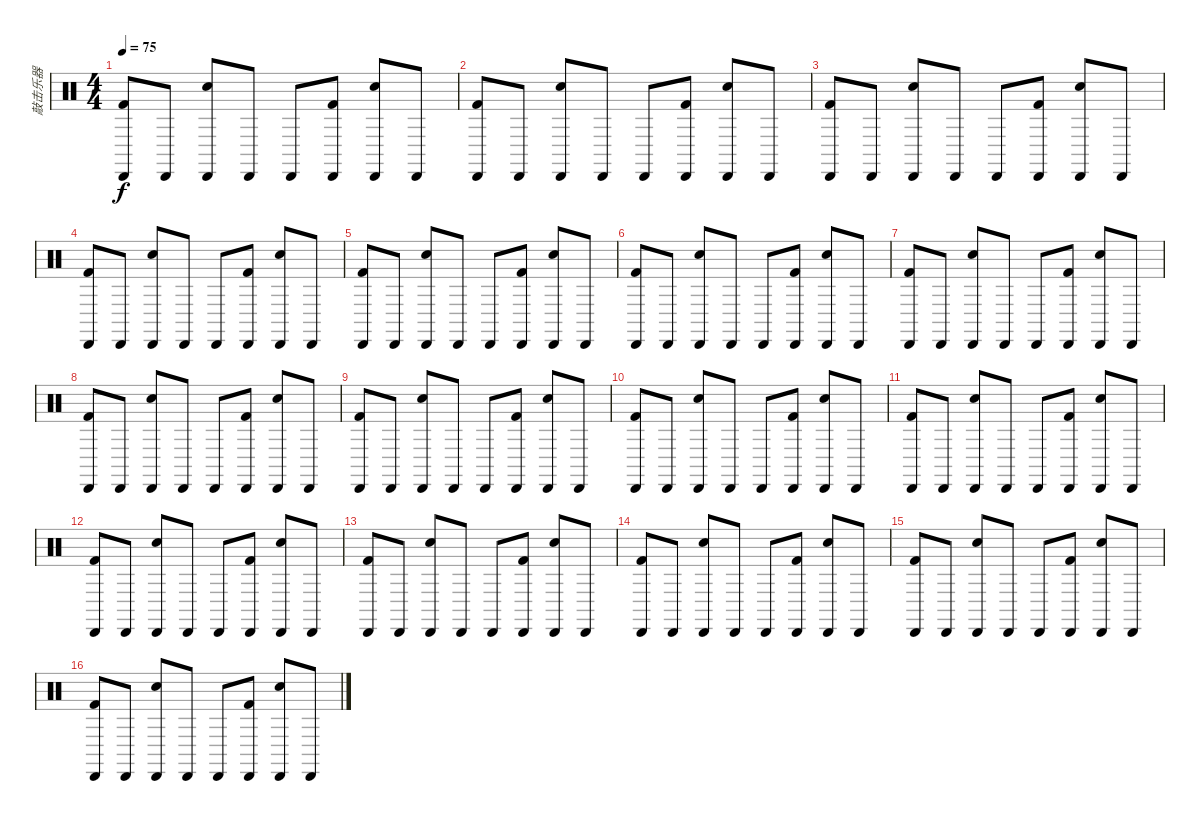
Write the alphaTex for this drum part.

\track ("敲击乐器" "敲击乐器") {instrument percussion}
\staff {score}
\articulation defaults
\ts (4 4)
\tempo 75
\clef neutral
\ks c
("Cabasa (hit)" "Kick (hit) 2").8{dy f} "Cabasa (hit)".8 ("Cabasa (hit)" "Electric Snare (hit)").8 "Cabasa (hit)".8 "Cabasa (hit)".8 ("Cabasa (hit)" "Kick (hit) 2").8 ("Cabasa (hit)" "Electric Snare (hit)").8 "Cabasa (hit)".8 |
("Cabasa (hit)" "Kick (hit) 2").8 "Cabasa (hit)".8 ("Cabasa (hit)" "Electric Snare (hit)").8 "Cabasa (hit)".8 "Cabasa (hit)".8 ("Cabasa (hit)" "Kick (hit) 2").8 ("Cabasa (hit)" "Electric Snare (hit)").8 "Cabasa (hit)".8 |
("Cabasa (hit)" "Kick (hit) 2").8 "Cabasa (hit)".8 ("Cabasa (hit)" "Electric Snare (hit)").8 "Cabasa (hit)".8 "Cabasa (hit)".8 ("Cabasa (hit)" "Kick (hit) 2").8 ("Cabasa (hit)" "Electric Snare (hit)").8 "Cabasa (hit)".8 |
("Cabasa (hit)" "Kick (hit) 2").8 "Cabasa (hit)".8 ("Cabasa (hit)" "Electric Snare (hit)").8 "Cabasa (hit)".8 "Cabasa (hit)".8 ("Cabasa (hit)" "Kick (hit) 2").8 ("Cabasa (hit)" "Electric Snare (hit)").8 "Cabasa (hit)".8 |
("Cabasa (hit)" "Kick (hit) 2").8 "Cabasa (hit)".8 ("Cabasa (hit)" "Electric Snare (hit)").8 "Cabasa (hit)".8 "Cabasa (hit)".8 ("Cabasa (hit)" "Kick (hit) 2").8 ("Cabasa (hit)" "Electric Snare (hit)").8 "Cabasa (hit)".8 |
("Cabasa (hit)" "Kick (hit) 2").8 "Cabasa (hit)".8 ("Cabasa (hit)" "Electric Snare (hit)").8 "Cabasa (hit)".8 "Cabasa (hit)".8 ("Cabasa (hit)" "Kick (hit) 2").8 ("Cabasa (hit)" "Electric Snare (hit)").8 "Cabasa (hit)".8 |
("Cabasa (hit)" "Kick (hit) 2").8 "Cabasa (hit)".8 ("Cabasa (hit)" "Electric Snare (hit)").8 "Cabasa (hit)".8 "Cabasa (hit)".8 ("Cabasa (hit)" "Kick (hit) 2").8 ("Cabasa (hit)" "Electric Snare (hit)").8 "Cabasa (hit)".8 |
("Cabasa (hit)" "Kick (hit) 2").8 "Cabasa (hit)".8 ("Cabasa (hit)" "Electric Snare (hit)").8 "Cabasa (hit)".8 "Cabasa (hit)".8 ("Cabasa (hit)" "Kick (hit) 2").8 ("Cabasa (hit)" "Electric Snare (hit)").8 "Cabasa (hit)".8 |
("Cabasa (hit)" "Kick (hit) 2").8 "Cabasa (hit)".8 ("Cabasa (hit)" "Electric Snare (hit)").8 "Cabasa (hit)".8 "Cabasa (hit)".8 ("Cabasa (hit)" "Kick (hit) 2").8 ("Cabasa (hit)" "Electric Snare (hit)").8 "Cabasa (hit)".8 |
("Cabasa (hit)" "Kick (hit) 2").8 "Cabasa (hit)".8 ("Cabasa (hit)" "Electric Snare (hit)").8 "Cabasa (hit)".8 "Cabasa (hit)".8 ("Cabasa (hit)" "Kick (hit) 2").8 ("Cabasa (hit)" "Electric Snare (hit)").8 "Cabasa (hit)".8 |
("Cabasa (hit)" "Kick (hit) 2").8 "Cabasa (hit)".8 ("Cabasa (hit)" "Electric Snare (hit)").8 "Cabasa (hit)".8 "Cabasa (hit)".8 ("Cabasa (hit)" "Kick (hit) 2").8 ("Cabasa (hit)" "Electric Snare (hit)").8 "Cabasa (hit)".8 |
("Cabasa (hit)" "Kick (hit) 2").8 "Cabasa (hit)".8 ("Cabasa (hit)" "Electric Snare (hit)").8 "Cabasa (hit)".8 "Cabasa (hit)".8 ("Cabasa (hit)" "Kick (hit) 2").8 ("Cabasa (hit)" "Electric Snare (hit)").8 "Cabasa (hit)".8 |
("Cabasa (hit)" "Kick (hit) 2").8 "Cabasa (hit)".8 ("Cabasa (hit)" "Electric Snare (hit)").8 "Cabasa (hit)".8 "Cabasa (hit)".8 ("Cabasa (hit)" "Kick (hit) 2").8 ("Cabasa (hit)" "Electric Snare (hit)").8 "Cabasa (hit)".8 |
("Cabasa (hit)" "Kick (hit) 2").8 "Cabasa (hit)".8 ("Cabasa (hit)" "Electric Snare (hit)").8 "Cabasa (hit)".8 "Cabasa (hit)".8 ("Cabasa (hit)" "Kick (hit) 2").8 ("Cabasa (hit)" "Electric Snare (hit)").8 "Cabasa (hit)".8 |
("Cabasa (hit)" "Kick (hit) 2").8 "Cabasa (hit)".8 ("Cabasa (hit)" "Electric Snare (hit)").8 "Cabasa (hit)".8 "Cabasa (hit)".8 ("Cabasa (hit)" "Kick (hit) 2").8 ("Cabasa (hit)" "Electric Snare (hit)").8 "Cabasa (hit)".8 |
("Cabasa (hit)" "Kick (hit) 2").8 "Cabasa (hit)".8 ("Cabasa (hit)" "Electric Snare (hit)").8 "Cabasa (hit)".8 "Cabasa (hit)".8 ("Cabasa (hit)" "Kick (hit) 2").8 ("Cabasa (hit)" "Electric Snare (hit)").8 "Cabasa (hit)".8
